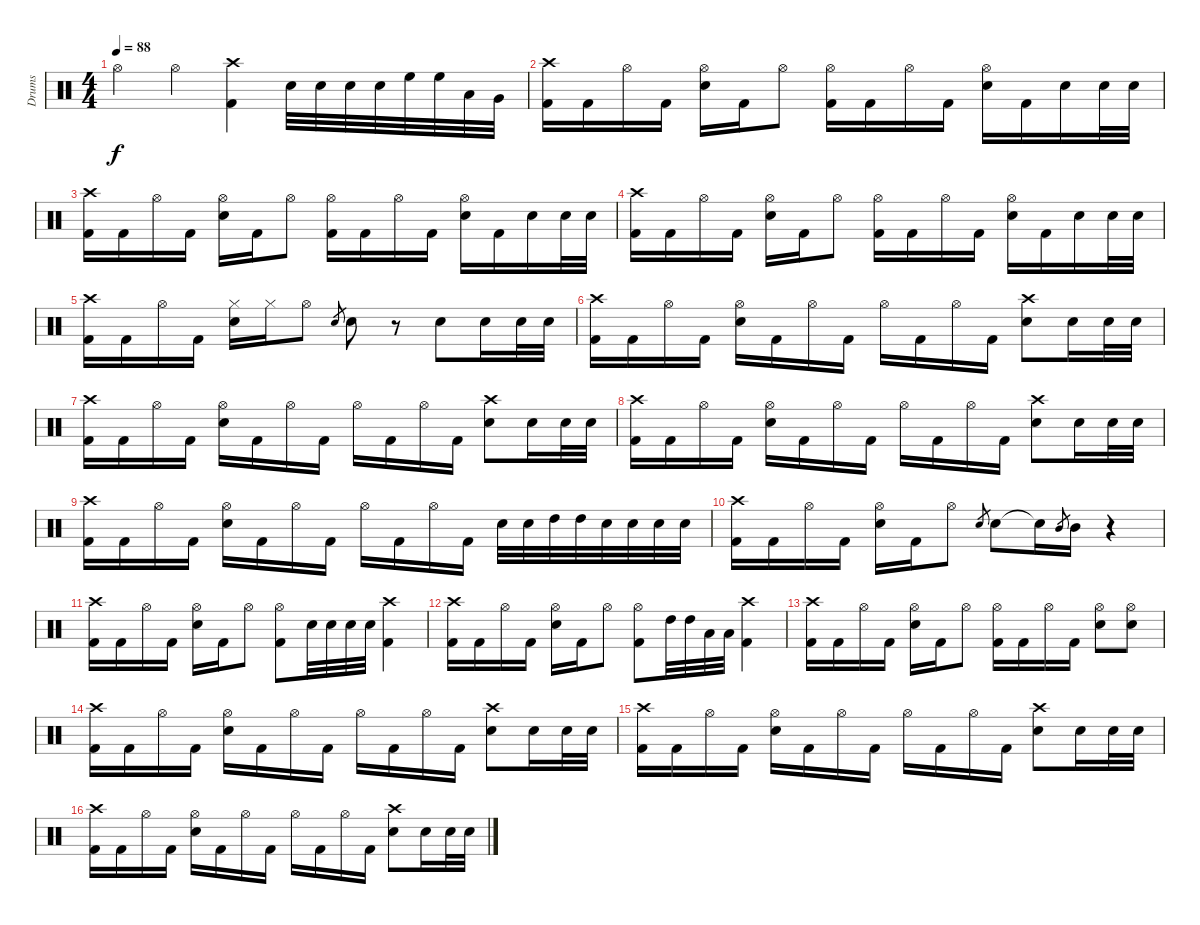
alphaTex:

\track ("Drums" "Drums") {instrument percussion}
\staff {score}
\articulation defaults
\ts (4 4)
\tempo 88
\clef neutral
\ks c "Hi-Hat (open)".4{dy f} "Hi-Hat (open)".4
("Crash high (hit)" "Kick (hit) 2").4 "Snare (hit) 2".32 "Snare (hit) 2".32 "Snare (hit) 2".32 "Snare (hit) 2".32 "High Floor Tom (hit)".32 "High Floor Tom (hit)".32 "Low Tom (hit)".32 "Very Low Tom (hit)".32 |
("Crash high (hit)" "Kick (hit) 2").16 "Kick (hit) 2".16 "Hi-Hat (open)".16 "Kick (hit) 2".16 ("Hi-Hat (open)" "Snare (hit) 2").16 "Kick (hit) 2".16 "Hi-Hat (open)".8 ("Hi-Hat (open)" "Kick (hit) 2").16 "Kick (hit) 2".16 "Hi-Hat (open)".16 "Kick (hit) 2".16 ("Hi-Hat (open)" "Snare (hit) 2").16 "Kick (hit) 2".16 "Snare (hit) 2".16 "Snare (hit) 2".32 "Snare (hit) 2".32 |
("Crash high (hit)" "Kick (hit) 2").16 "Kick (hit) 2".16 "Hi-Hat (open)".16 "Kick (hit) 2".16 ("Hi-Hat (open)" "Snare (hit) 2").16 "Kick (hit) 2".16 "Hi-Hat (open)".8 ("Hi-Hat (open)" "Kick (hit) 2").16 "Kick (hit) 2".16 "Hi-Hat (open)".16 "Kick (hit) 2".16 ("Hi-Hat (open)" "Snare (hit) 2").16 "Kick (hit) 2".16 "Snare (hit) 2".16 "Snare (hit) 2".32 "Snare (hit) 2".32 |
("Crash high (hit)" "Kick (hit) 2").16 "Kick (hit) 2".16 "Hi-Hat (open)".16 "Kick (hit) 2".16 ("Hi-Hat (open)" "Snare (hit) 2").16 "Kick (hit) 2".16 "Hi-Hat (open)".8 ("Hi-Hat (open)" "Kick (hit) 2").16 "Kick (hit) 2".16 "Hi-Hat (open)".16 "Kick (hit) 2".16 ("Hi-Hat (open)" "Snare (hit) 2").16 "Kick (hit) 2".16 "Snare (hit) 2".16 "Snare (hit) 2".32 "Snare (hit) 2".32 |
("Crash high (hit)" "Kick (hit) 2").16 "Kick (hit) 2".16 "Hi-Hat (open)".16 "Kick (hit) 2".16 ("Hi-Hat (closed)" "Snare (hit) 2").16 "Hi-Hat (closed)".16 "Hi-Hat (open)".8 "Snare (hit) 2".8{gr} "Snare (hit) 2".8 r.8 "Snare (hit) 2".8 "Snare (hit) 2".16 "Snare (hit) 2".32 "Snare (hit) 2".32 |
("Crash high (hit)" "Kick (hit) 2").16 "Kick (hit) 2".16 "Hi-Hat (open)".16 "Kick (hit) 2".16 ("Hi-Hat (open)" "Snare (hit) 2").16 "Kick (hit) 2".16 "Hi-Hat (open)".16 "Kick (hit) 2".16 "Hi-Hat (open)".16 "Kick (hit) 2".16 "Hi-Hat (open)".16 "Kick (hit) 2".16 ("Crash high (hit)" "Snare (hit) 2").8 "Snare (hit) 2".16 "Snare (hit) 2".32 "Snare (hit) 2".32 |
("Crash high (hit)" "Kick (hit) 2").16 "Kick (hit) 2".16 "Hi-Hat (open)".16 "Kick (hit) 2".16 ("Hi-Hat (open)" "Snare (hit) 2").16 "Kick (hit) 2".16 "Hi-Hat (open)".16 "Kick (hit) 2".16 "Hi-Hat (open)".16 "Kick (hit) 2".16 "Hi-Hat (open)".16 "Kick (hit) 2".16 ("Crash high (hit)" "Snare (hit) 2").8 "Snare (hit) 2".16 "Snare (hit) 2".32 "Snare (hit) 2".32 |
("Crash high (hit)" "Kick (hit) 2").16 "Kick (hit) 2".16 "Hi-Hat (open)".16 "Kick (hit) 2".16 ("Hi-Hat (open)" "Snare (hit) 2").16 "Kick (hit) 2".16 "Hi-Hat (open)".16 "Kick (hit) 2".16 "Hi-Hat (open)".16 "Kick (hit) 2".16 "Hi-Hat (open)".16 "Kick (hit) 2".16 ("Crash high (hit)" "Snare (hit) 2").8 "Snare (hit) 2".16 "Snare (hit) 2".32 "Snare (hit) 2".32 |
("Crash high (hit)" "Kick (hit) 2").16 "Kick (hit) 2".16 "Hi-Hat (open)".16 "Kick (hit) 2".16 ("Hi-Hat (open)" "Snare (hit) 2").16 "Kick (hit) 2".16 "Hi-Hat (open)".16 "Kick (hit) 2".16 "Hi-Hat (open)".16 "Kick (hit) 2".16 "Hi-Hat (open)".16 "Kick (hit) 2".16 "Snare (hit) 2".32 "Snare (hit) 2".32 "High Tom (hit)".32 "High Tom (hit)".32 "Snare (hit) 2".32 "Snare (hit) 2".32 "Snare (hit) 2".32 "Snare (hit) 2".32 |
("Crash high (hit)" "Kick (hit) 2").16 "Kick (hit) 2".16 "Hi-Hat (open)".16 "Kick (hit) 2".16 ("Hi-Hat (open)" "Snare (hit) 2").16 "Kick (hit) 2".16 "Hi-Hat (open)".8 "Snare (hit) 2".8{gr} "Snare (hit) 2".8 "Snare (hit)"{t}.16 "Mid Tom (hit)".8{gr} "Mid Tom (hit)".16 r.4 |
("Crash high (hit)" "Kick (hit) 2").16 "Kick (hit) 2".16 "Hi-Hat (open)".16 "Kick (hit) 2".16 ("Hi-Hat (open)" "Snare (hit) 2").16 "Kick (hit) 2".16 "Hi-Hat (open)".8 ("Hi-Hat (open)" "Kick (hit) 2").8 "Snare (hit) 2".32 "Snare (hit) 2".32 "Snare (hit) 2".32 "Snare (hit) 2".32 ("Crash high (hit)" "Kick (hit) 2").4 |
("Crash high (hit)" "Kick (hit) 2").16 "Kick (hit) 2".16 "Hi-Hat (open)".16 "Kick (hit) 2".16 ("Hi-Hat (open)" "Snare (hit) 2").16 "Kick (hit) 2".16 "Hi-Hat (open)".8 ("Hi-Hat (open)" "Kick (hit) 2").8 "High Tom (hit)".32 "High Tom (hit)".32 "Low Tom (hit)".32 "Low Tom (hit)".32 ("Crash high (hit)" "Kick (hit) 2").4 |
("Crash high (hit)" "Kick (hit) 2").16 "Kick (hit) 2".16 "Hi-Hat (open)".16 "Kick (hit) 2".16 ("Hi-Hat (open)" "Snare (hit) 2").16 "Kick (hit) 2".16 "Hi-Hat (open)".8 ("Hi-Hat (open)" "Kick (hit) 2").16 "Kick (hit) 2".16 "Hi-Hat (open)".16 "Kick (hit) 2".16 ("Hi-Hat (open)" "Snare (hit) 2").8 ("Hi-Hat (open)" "Snare (hit) 2").8 |
("Crash high (hit)" "Kick (hit) 2").16 "Kick (hit) 2".16 "Hi-Hat (open)".16 "Kick (hit) 2".16 ("Hi-Hat (open)" "Snare (hit) 2").16 "Kick (hit) 2".16 "Hi-Hat (open)".16 "Kick (hit) 2".16 "Hi-Hat (open)".16 "Kick (hit) 2".16 "Hi-Hat (open)".16 "Kick (hit) 2".16 ("Crash high (hit)" "Snare (hit) 2").8 "Snare (hit) 2".16 "Snare (hit) 2".32 "Snare (hit) 2".32 |
("Crash high (hit)" "Kick (hit) 2").16 "Kick (hit) 2".16 "Hi-Hat (open)".16 "Kick (hit) 2".16 ("Hi-Hat (open)" "Snare (hit) 2").16 "Kick (hit) 2".16 "Hi-Hat (open)".16 "Kick (hit) 2".16 "Hi-Hat (open)".16 "Kick (hit) 2".16 "Hi-Hat (open)".16 "Kick (hit) 2".16 ("Crash high (hit)" "Snare (hit) 2").8 "Snare (hit) 2".16 "Snare (hit) 2".32 "Snare (hit) 2".32 |
("Crash high (hit)" "Kick (hit) 2").16 "Kick (hit) 2".16 "Hi-Hat (open)".16 "Kick (hit) 2".16 ("Hi-Hat (open)" "Snare (hit) 2").16 "Kick (hit) 2".16 "Hi-Hat (open)".16 "Kick (hit) 2".16 "Hi-Hat (open)".16 "Kick (hit) 2".16 "Hi-Hat (open)".16 "Kick (hit) 2".16 ("Crash high (hit)" "Snare (hit) 2").8 "Snare (hit) 2".16 "Snare (hit) 2".32 "Snare (hit) 2".32
